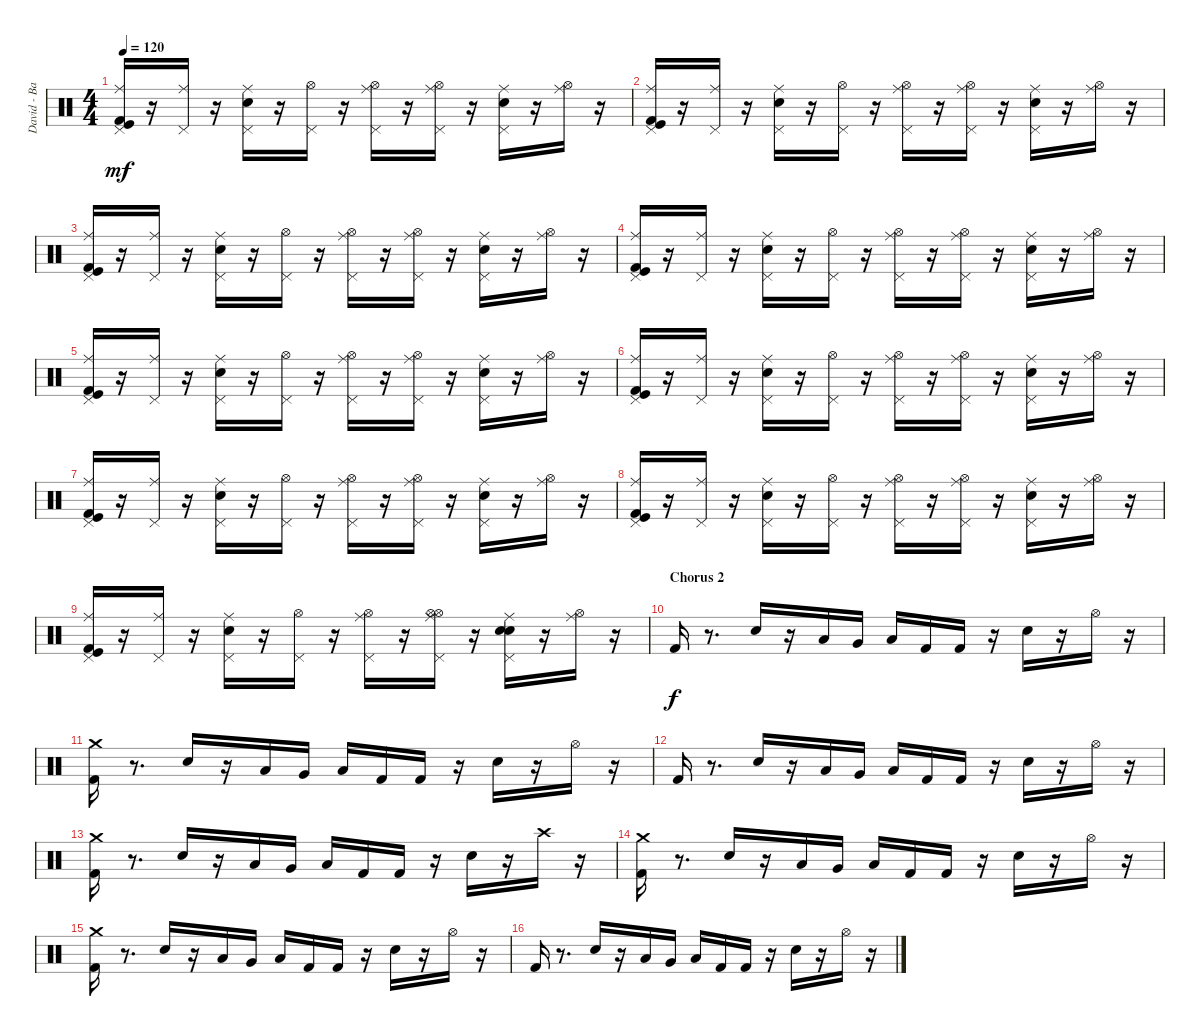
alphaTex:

\track ("David - Batterie" "David - Ba") {instrument percussion}
\staff {score}
\articulation defaults
\ts (4 4)
\tempo 120
\clef neutral
\ks c
("Kick (hit)" "Kick (hit) 2" "Ride (middle)" "Pedal Hi-Hat (hit)").16{dy mf} r.16 ("Ride (middle)" "Pedal Hi-Hat (hit)").16 r.16 ("Electric Snare (hit)" "Ride (middle)" "Pedal Hi-Hat (hit)").16 r.16 ("Hi-Hat (open)" "Pedal Hi-Hat (hit)").16 r.16 ("Ride (middle)" "Hi-Hat (open)" "Pedal Hi-Hat (hit)").16 r.16 ("Ride (middle)" "Hi-Hat (open)" "Pedal Hi-Hat (hit)").16 r.16 ("Electric Snare (hit)" "Ride (middle)" "Pedal Hi-Hat (hit)").16 r.16 ("Ride (middle)" "Hi-Hat (open)").16 r.16 |
("Pedal Hi-Hat (hit)" "Ride (middle)" "Kick (hit) 2" "Kick (hit)").16 r.16 ("Pedal Hi-Hat (hit)" "Ride (middle)").16 r.16 ("Pedal Hi-Hat (hit)" "Ride (middle)" "Electric Snare (hit)").16 r.16 ("Pedal Hi-Hat (hit)" "Hi-Hat (open)").16 r.16 ("Pedal Hi-Hat (hit)" "Hi-Hat (open)" "Ride (middle)").16 r.16 ("Pedal Hi-Hat (hit)" "Hi-Hat (open)" "Ride (middle)").16 r.16 ("Pedal Hi-Hat (hit)" "Ride (middle)" "Electric Snare (hit)").16 r.16 ("Hi-Hat (open)" "Ride (middle)").16 r.16 |
("Kick (hit)" "Kick (hit) 2" "Ride (middle)" "Pedal Hi-Hat (hit)").16 r.16 ("Ride (middle)" "Pedal Hi-Hat (hit)").16 r.16 ("Electric Snare (hit)" "Ride (middle)" "Pedal Hi-Hat (hit)").16 r.16 ("Hi-Hat (open)" "Pedal Hi-Hat (hit)").16 r.16 ("Ride (middle)" "Hi-Hat (open)" "Pedal Hi-Hat (hit)").16 r.16 ("Ride (middle)" "Hi-Hat (open)" "Pedal Hi-Hat (hit)").16 r.16 ("Electric Snare (hit)" "Ride (middle)" "Pedal Hi-Hat (hit)").16 r.16 ("Ride (middle)" "Hi-Hat (open)").16 r.16 |
("Kick (hit)" "Kick (hit) 2" "Ride (middle)" "Pedal Hi-Hat (hit)").16 r.16 ("Ride (middle)" "Pedal Hi-Hat (hit)").16 r.16 ("Electric Snare (hit)" "Ride (middle)" "Pedal Hi-Hat (hit)").16 r.16 ("Hi-Hat (open)" "Pedal Hi-Hat (hit)").16 r.16 ("Ride (middle)" "Hi-Hat (open)" "Pedal Hi-Hat (hit)").16 r.16 ("Ride (middle)" "Hi-Hat (open)" "Pedal Hi-Hat (hit)").16 r.16 ("Electric Snare (hit)" "Ride (middle)" "Pedal Hi-Hat (hit)").16 r.16 ("Ride (middle)" "Hi-Hat (open)").16 r.16 |
("Pedal Hi-Hat (hit)" "Ride (middle)" "Kick (hit) 2" "Kick (hit)").16 r.16 ("Pedal Hi-Hat (hit)" "Ride (middle)").16 r.16 ("Pedal Hi-Hat (hit)" "Ride (middle)" "Electric Snare (hit)").16 r.16 ("Pedal Hi-Hat (hit)" "Hi-Hat (open)").16 r.16 ("Pedal Hi-Hat (hit)" "Hi-Hat (open)" "Ride (middle)").16 r.16 ("Pedal Hi-Hat (hit)" "Hi-Hat (open)" "Ride (middle)").16 r.16 ("Pedal Hi-Hat (hit)" "Ride (middle)" "Electric Snare (hit)").16 r.16 ("Hi-Hat (open)" "Ride (middle)").16 r.16 |
("Kick (hit)" "Kick (hit) 2" "Ride (middle)" "Pedal Hi-Hat (hit)").16 r.16 ("Ride (middle)" "Pedal Hi-Hat (hit)").16 r.16 ("Electric Snare (hit)" "Ride (middle)" "Pedal Hi-Hat (hit)").16 r.16 ("Hi-Hat (open)" "Pedal Hi-Hat (hit)").16 r.16 ("Ride (middle)" "Hi-Hat (open)" "Pedal Hi-Hat (hit)").16 r.16 ("Ride (middle)" "Hi-Hat (open)" "Pedal Hi-Hat (hit)").16 r.16 ("Electric Snare (hit)" "Ride (middle)" "Pedal Hi-Hat (hit)").16 r.16 ("Ride (middle)" "Hi-Hat (open)").16 r.16 |
("Pedal Hi-Hat (hit)" "Ride (middle)" "Kick (hit) 2" "Kick (hit)").16 r.16 ("Pedal Hi-Hat (hit)" "Ride (middle)").16 r.16 ("Pedal Hi-Hat (hit)" "Ride (middle)" "Electric Snare (hit)").16 r.16 ("Pedal Hi-Hat (hit)" "Hi-Hat (open)").16 r.16 ("Pedal Hi-Hat (hit)" "Hi-Hat (open)" "Ride (middle)").16 r.16 ("Pedal Hi-Hat (hit)" "Hi-Hat (open)" "Ride (middle)").16 r.16 ("Pedal Hi-Hat (hit)" "Ride (middle)" "Electric Snare (hit)").16 r.16 ("Hi-Hat (open)" "Ride (middle)").16 r.16 |
("Pedal Hi-Hat (hit)" "Ride (middle)" "Kick (hit) 2" "Kick (hit)").16 r.16 ("Pedal Hi-Hat (hit)" "Ride (middle)").16 r.16 ("Pedal Hi-Hat (hit)" "Ride (middle)" "Electric Snare (hit)").16 r.16 ("Pedal Hi-Hat (hit)" "Hi-Hat (open)").16 r.16 ("Pedal Hi-Hat (hit)" "Hi-Hat (open)" "Ride (middle)").16 r.16 ("Pedal Hi-Hat (hit)" "Hi-Hat (open)" "Ride (middle)").16 r.16 ("Pedal Hi-Hat (hit)" "Ride (middle)" "Electric Snare (hit)").16 r.16 ("Hi-Hat (open)" "Ride (middle)").16 r.16 |
("Kick (hit)" "Kick (hit) 2" "Ride (middle)" "Pedal Hi-Hat (hit)").16 r.16 ("Ride (middle)" "Pedal Hi-Hat (hit)").16 r.16 ("Electric Snare (hit)" "Ride (middle)" "Pedal Hi-Hat (hit)").16 r.16 ("Hi-Hat (open)" "Pedal Hi-Hat (hit)").16 r.16 ("Ride (middle)" "Hi-Hat (open)" "Pedal Hi-Hat (hit)").16 r.16 ("Hi-Hat (open)" "Ride (middle)" "Hi-Hat (open)" "Pedal Hi-Hat (hit)").16 r.16 ("Electric Snare (hit)" "Electric Snare (hit)" "Ride (middle)" "Pedal Hi-Hat (hit)").16 r.16 ("Ride (middle)" "Hi-Hat (open)").16 r.16 |
\section ("" "Chorus 2")
"Kick (hit) 2".16{dy f} r.8{d} "Electric Snare (hit)".16 r.16 "Low Tom (hit)".16 "Very Low Tom (hit)".16 "Low Floor Tom (hit)".16 "Kick (hit) 2".16 "Kick (hit) 2".16 r.16 "Electric Snare (hit)".16 r.16 "Hi-Hat (open)".16 r.16 |
("Kick (hit) 2" "Crash medium (hit)").16 r.8{d} "Electric Snare (hit)".16 r.16 "Low Tom (hit)".16 "Very Low Tom (hit)".16 "Low Floor Tom (hit)".16 "Kick (hit) 2".16 "Kick (hit) 2".16 r.16 "Electric Snare (hit)".16 r.16 "Hi-Hat (open)".16 r.16 |
"Kick (hit) 2".16 r.8{d} "Electric Snare (hit)".16 r.16 "Low Tom (hit)".16 "Very Low Tom (hit)".16 "Low Floor Tom (hit)".16 "Kick (hit) 2".16 "Kick (hit) 2".16 r.16 "Electric Snare (hit)".16 r.16 "Hi-Hat (open)".16 r.16 |
("Crash medium (hit)" "Kick (hit) 2").16 r.8{d} "Electric Snare (hit)".16 r.16 "Low Tom (hit)".16 "Very Low Tom (hit)".16 "Low Floor Tom (hit)".16 "Kick (hit) 2".16 "Kick (hit) 2".16 r.16 "Electric Snare (hit)".16 r.16 "Crash high (hit)".16 r.16 |
("Kick (hit) 2" "Crash medium (hit)").16 r.8{d} "Electric Snare (hit)".16 r.16 "Low Tom (hit)".16 "Very Low Tom (hit)".16 "Low Floor Tom (hit)".16 "Kick (hit) 2".16 "Kick (hit) 2".16 r.16 "Electric Snare (hit)".16 r.16 "Hi-Hat (open)".16 r.16 |
("Crash medium (hit)" "Kick (hit) 2").16 r.8{d} "Electric Snare (hit)".16 r.16 "Low Tom (hit)".16 "Very Low Tom (hit)".16 "Low Floor Tom (hit)".16 "Kick (hit) 2".16 "Kick (hit) 2".16 r.16 "Electric Snare (hit)".16 r.16 "Hi-Hat (open)".16 r.16 |
"Kick (hit) 2".16 r.8{d} "Electric Snare (hit)".16 r.16 "Low Tom (hit)".16 "Very Low Tom (hit)".16 "Low Floor Tom (hit)".16 "Kick (hit) 2".16 "Kick (hit) 2".16 r.16 "Electric Snare (hit)".16 r.16 "Hi-Hat (open)".16 r.16
